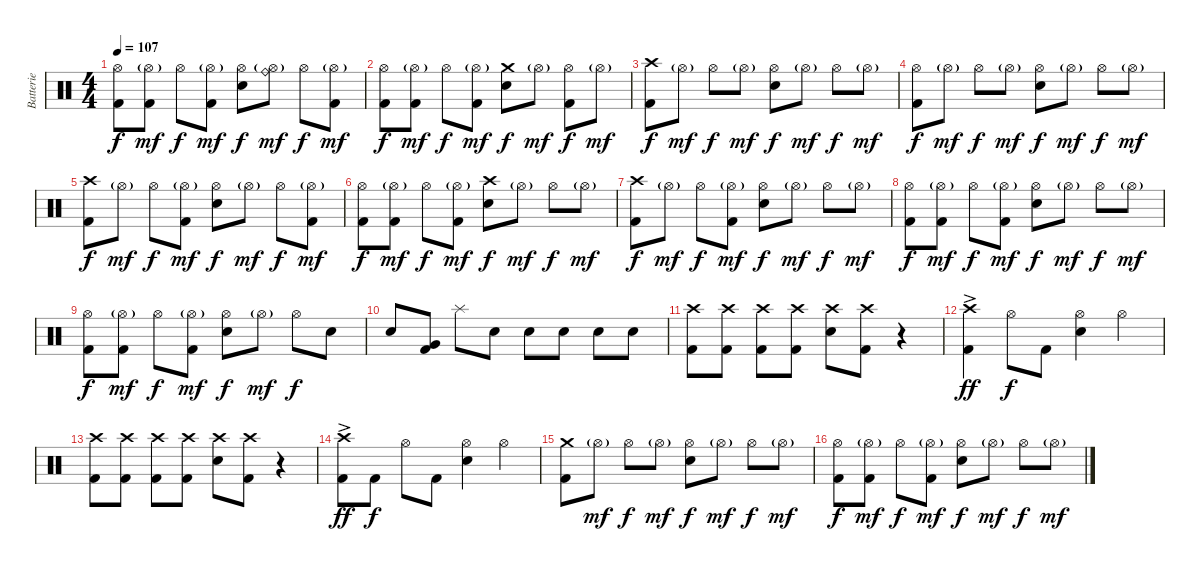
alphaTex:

\track ("Batterie" "Batterie") {instrument percussion}
\staff {score}
\articulation defaults
\ts (4 4)
\tempo 107
\clef neutral
\ks c
("Hi-Hat (open)" "Kick (hit) 2").8{dy f} ("Hi-Hat (open)"{g} "Kick (hit) 2").8{dy mf} "Hi-Hat (open)".8{dy f} ("Hi-Hat (open)"{g} "Kick (hit) 2").8{dy mf} ("Hi-Hat (open)" "Electric Snare (hit)").8{dy f} ("Ride (bell)" "Hi-Hat (open)"{g}).8{dy mf} "Hi-Hat (open)".8{dy f} ("Hi-Hat (open)"{g} "Kick (hit) 2").8{dy mf} |
("Hi-Hat (open)" "Kick (hit) 2").8{dy f} ("Hi-Hat (open)"{g} "Kick (hit) 2").8{dy mf} "Hi-Hat (open)".8{dy f} ("Hi-Hat (open)"{g} "Kick (hit) 2").8{dy mf} ("Crash medium (hit)" "Electric Snare (hit)").8{dy f} "Hi-Hat (open)"{g}.8{dy mf} ("Hi-Hat (open)" "Kick (hit) 2").8{dy f} "Hi-Hat (open)"{g}.8{dy mf} |
("Crash high (hit)" "Kick (hit) 2").8{dy f} "Hi-Hat (open)"{g}.8{dy mf} "Hi-Hat (open)".8{dy f} "Hi-Hat (open)"{g}.8{dy mf} ("Hi-Hat (open)" "Electric Snare (hit)").8{dy f} "Hi-Hat (open)"{g}.8{dy mf} "Hi-Hat (open)".8{dy f} "Hi-Hat (open)"{g}.8{dy mf} |
("Hi-Hat (open)" "Kick (hit) 2").8{dy f} "Hi-Hat (open)"{g}.8{dy mf} "Hi-Hat (open)".8{dy f} "Hi-Hat (open)"{g}.8{dy mf} ("Hi-Hat (open)" "Electric Snare (hit)").8{dy f} "Hi-Hat (open)"{g}.8{dy mf} "Hi-Hat (open)".8{dy f} "Hi-Hat (open)"{g}.8{dy mf} |
("Crash high (hit)" "Kick (hit) 2").8{dy f} "Hi-Hat (open)"{g}.8{dy mf} "Hi-Hat (open)".8{dy f} ("Hi-Hat (open)"{g} "Kick (hit) 2").8{dy mf} ("Hi-Hat (open)" "Electric Snare (hit)").8{dy f} "Hi-Hat (open)"{g}.8{dy mf} "Hi-Hat (open)".8{dy f} ("Hi-Hat (open)"{g} "Kick (hit) 2").8{dy mf} |
("Hi-Hat (open)" "Kick (hit) 2").8{dy f} ("Hi-Hat (open)"{g} "Kick (hit) 2").8{dy mf} "Hi-Hat (open)".8{dy f} ("Hi-Hat (open)"{g} "Kick (hit) 2").8{dy mf} ("Crash high (hit)" "Electric Snare (hit)").8{dy f} "Hi-Hat (open)"{g}.8{dy mf} "Hi-Hat (open)".8{dy f} "Hi-Hat (open)"{g}.8{dy mf} |
("Crash high (hit)" "Kick (hit) 2").8{dy f} "Hi-Hat (open)"{g}.8{dy mf} "Hi-Hat (open)".8{dy f} ("Hi-Hat (open)"{g} "Kick (hit) 2").8{dy mf} ("Hi-Hat (open)" "Electric Snare (hit)").8{dy f} "Hi-Hat (open)"{g}.8{dy mf} "Hi-Hat (open)".8{dy f} "Hi-Hat (open)"{g}.8{dy mf} |
("Hi-Hat (open)" "Kick (hit) 2").8{dy f} ("Hi-Hat (open)"{g} "Kick (hit) 2").8{dy mf} "Hi-Hat (open)".8{dy f} ("Hi-Hat (open)"{g} "Kick (hit) 2").8{dy mf} ("Hi-Hat (open)" "Electric Snare (hit)").8{dy f} "Hi-Hat (open)"{g}.8{dy mf} "Hi-Hat (open)".8{dy f} "Hi-Hat (open)"{g}.8{dy mf} |
("Hi-Hat (open)" "Kick (hit) 2").8{dy f} ("Hi-Hat (open)"{g} "Kick (hit) 2").8{dy mf} "Hi-Hat (open)".8{dy f} ("Hi-Hat (open)"{g} "Kick (hit) 2").8{dy mf} ("Hi-Hat (open)" "Electric Snare (hit)").8{dy f} "Hi-Hat (open)"{g}.8{dy mf} "Hi-Hat (open)".8{dy f} "Electric Snare (hit)".8 |
"Electric Snare (hit)".8 ("Very Low Tom (hit)" "Kick (hit) 2").8 "Splash (hit)".8 "Electric Snare (hit)".8 "Electric Snare (hit)".8 "Electric Snare (hit)".8 "Electric Snare (hit)".8 "Electric Snare (hit)".8 |
("Crash high (hit)" "Kick (hit) 2").8 ("Crash high (hit)" "Kick (hit) 2").8 ("Crash high (hit)" "Kick (hit) 2").8 ("Crash high (hit)" "Kick (hit) 2").8 ("Crash high (hit)" "Electric Snare (hit)").8 ("Crash high (hit)" "Kick (hit) 2").8 r.4 |
("Crash high (hit)"{ac} "Kick (hit) 2").4{dy ff} "Hi-Hat (open)".8{dy f} "Kick (hit) 2".8 ("Hi-Hat (open)" "Electric Snare (hit)").4 "Hi-Hat (open)".4 |
("Crash high (hit)" "Kick (hit) 2").8 ("Crash high (hit)" "Kick (hit) 2").8 ("Crash high (hit)" "Kick (hit) 2").8 ("Crash high (hit)" "Kick (hit) 2").8 ("Crash high (hit)" "Electric Snare (hit)").8 ("Crash high (hit)" "Kick (hit) 2").8 r.4 |
("Crash high (hit)"{ac} "Kick (hit) 2").8{dy ff} "Kick (hit) 2".8{dy f} "Hi-Hat (open)".8 "Kick (hit) 2".8 ("Hi-Hat (open)" "Electric Snare (hit)").4 "Hi-Hat (open)".4 |
("Crash medium (hit)" "Kick (hit) 2").8 "Hi-Hat (open)"{g}.8{dy mf} "Hi-Hat (open)".8{dy f} "Hi-Hat (open)"{g}.8{dy mf} ("Hi-Hat (open)" "Electric Snare (hit)").8{dy f} "Hi-Hat (open)"{g}.8{dy mf} "Hi-Hat (open)".8{dy f} "Hi-Hat (open)"{g}.8{dy mf} |
("Hi-Hat (open)" "Kick (hit) 2").8{dy f} ("Hi-Hat (open)"{g} "Kick (hit) 2").8{dy mf} "Hi-Hat (open)".8{dy f} ("Hi-Hat (open)"{g} "Kick (hit) 2").8{dy mf} ("Hi-Hat (open)" "Electric Snare (hit)").8{dy f} "Hi-Hat (open)"{g}.8{dy mf} "Hi-Hat (open)".8{dy f} "Hi-Hat (open)"{g}.8{dy mf}
